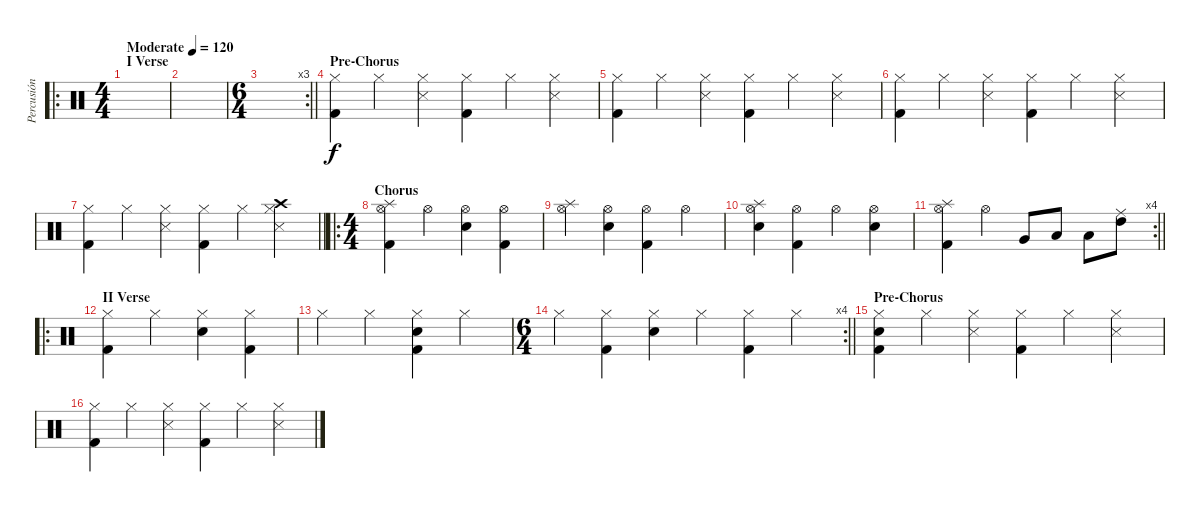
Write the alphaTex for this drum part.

\track ("Percusión" "Percusión") {instrument percussion}
\staff {score}
\articulation defaults
\ro
\ts (4 4)
\section ("" "I Verse")
\tempo (120 "Moderate")
\clef neutral
\ks c
|
|
\rc 3
\ts (6 4)
\barLineRight lightlight
|
\section ("" "Pre-Chorus")
("Hi-Hat (closed)" "Kick (hit) 2").4 "Hi-Hat (closed)".4 ("Metronome (hit)" "Hi-Hat (closed)").4 ("Hi-Hat (closed)" "Kick (hit) 2").4 "Hi-Hat (closed)".4 ("Metronome (hit)" "Hi-Hat (closed)").4 |
("Hi-Hat (closed)" "Kick (hit) 2").4 "Hi-Hat (closed)".4 ("Metronome (hit)" "Hi-Hat (closed)").4 ("Hi-Hat (closed)" "Kick (hit) 2").4 "Hi-Hat (closed)".4 ("Metronome (hit)" "Hi-Hat (closed)").4 |
("Hi-Hat (closed)" "Kick (hit) 2").4 "Hi-Hat (closed)".4 ("Metronome (hit)" "Hi-Hat (closed)").4 ("Hi-Hat (closed)" "Kick (hit) 2").4 "Hi-Hat (closed)".4 ("Metronome (hit)" "Hi-Hat (closed)").4 |
\barLineRight lightlight
("Hi-Hat (closed)" "Kick (hit) 2").4 "Hi-Hat (closed)".4 ("Metronome (hit)" "Hi-Hat (closed)").4 ("Hi-Hat (closed)" "Kick (hit) 2").4 "Hi-Hat (closed)".4 ("Metronome (hit)" "Hi-Hat (closed)" "Crash high (hit)").4 |
\ro
\ts (4 4)
\section ("" "Chorus")
("Splash (hit)" "Hi-Hat (open)" "Kick (hit) 2").4 "Hi-Hat (open)".4 ("Snare (hit) 2" "Hi-Hat (open)").4 ("Hi-Hat (open)" "Kick (hit) 2").4 |
("Splash (hit)" "Hi-Hat (open)").4 ("Snare (hit) 2" "Hi-Hat (open)").4 ("Hi-Hat (open)" "Kick (hit) 2").4 "Hi-Hat (open)".4 |
("Splash (hit)" "Snare (hit) 2" "Hi-Hat (open)").4 ("Hi-Hat (open)" "Kick (hit) 2").4 "Hi-Hat (open)".4 ("Snare (hit) 2" "Hi-Hat (open)").4 |
\rc 4
\barLineRight lightlight
("Splash (hit)" "Hi-Hat (open)" "Kick (hit) 2").4 "Hi-Hat (open)".4 "Very Low Tom (hit)".8 "Low Floor Tom (hit)".8 "Low Tom (hit)".8 ("High Tom (hit)" "Ride (middle)").8 |
\ro
\section ("" "II Verse")
("Hi-Hat (closed)" "Kick (hit) 2").4 "Hi-Hat (closed)".4 ("Snare (hit) 2" "Hi-Hat (closed)").4 ("Hi-Hat (closed)" "Kick (hit) 2").4 |
"Hi-Hat (closed)".4 "Hi-Hat (closed)".4 ("Snare (hit) 2" "Hi-Hat (closed)" "Kick (hit) 2").4 "Hi-Hat (closed)".4 |
\rc 4
\ts (6 4)
\barLineRight lightlight "Hi-Hat (closed)".4
("Hi-Hat (closed)" "Kick (hit) 2").4 ("Snare (hit) 2" "Hi-Hat (closed)").4 "Hi-Hat (closed)".4 ("Hi-Hat (closed)" "Kick (hit) 2").4 "Hi-Hat (closed)".4 |
\section ("" "Pre-Chorus")
("Snare (hit) 2" "Hi-Hat (closed)" "Kick (hit) 2").4 "Hi-Hat (closed)".4 ("Metronome (hit)" "Hi-Hat (closed)").4 ("Hi-Hat (closed)" "Kick (hit) 2").4 "Hi-Hat (closed)".4 ("Metronome (hit)" "Hi-Hat (closed)").4 |
("Hi-Hat (closed)" "Kick (hit) 2").4 "Hi-Hat (closed)".4 ("Metronome (hit)" "Hi-Hat (closed)").4 ("Hi-Hat (closed)" "Kick (hit) 2").4 "Hi-Hat (closed)".4 ("Metronome (hit)" "Hi-Hat (closed)").4
